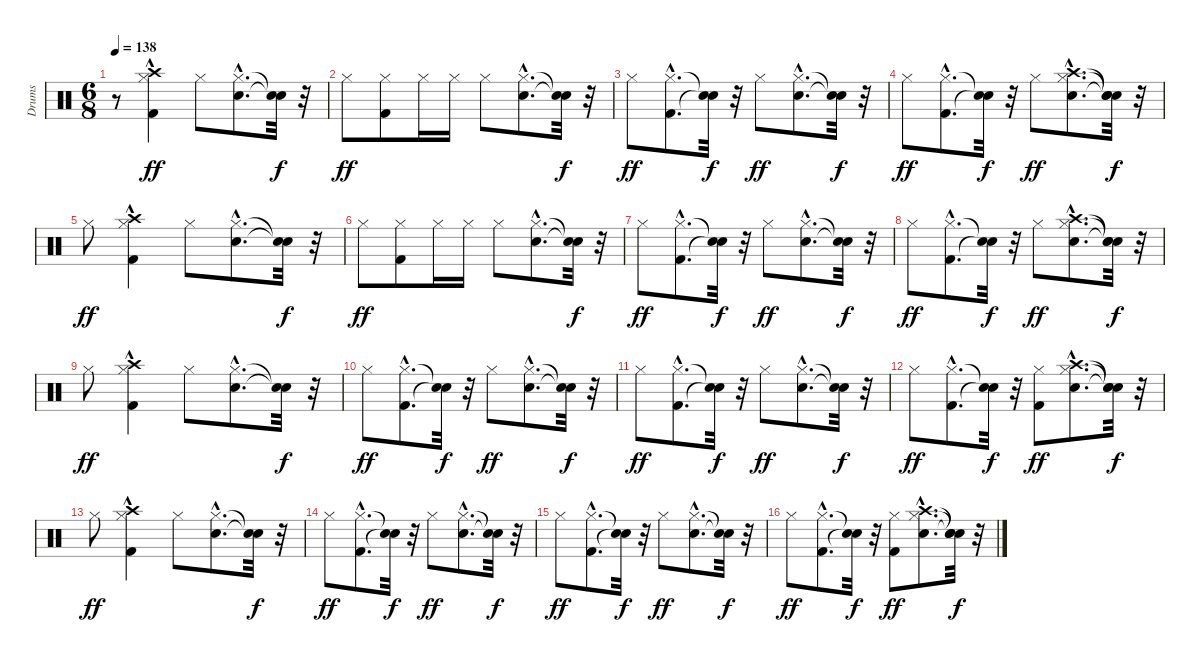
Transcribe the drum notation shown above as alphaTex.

\track ("Drums" "Drums") {instrument percussion}
\staff {score}
\articulation defaults
\ts (6 8)
\tempo 138
\clef neutral
\ks c
r.8{dy f} ("Kick (hit) 2"{hac} "Hi-Hat (closed)"{hac} "Crash high (hit)").4{dy ff} "Hi-Hat (closed)".8 ("Snare (hit) 2"{hac} "Hi-Hat (closed)"{hac}).8{d} ("Snare (hit)"{t} "Snare (hit)"{t}).32{dy f} r.32 |
"Hi-Hat (closed)".8{dy ff} ("Kick (hit) 2" "Hi-Hat (closed)").8 "Hi-Hat (closed)".16 "Hi-Hat (closed)".16 "Hi-Hat (closed)".8 ("Snare (hit) 2"{hac} "Hi-Hat (closed)"{hac}).8{d} ("Snare (hit)"{t} "Snare (hit)"{t}).32{dy f} r.32 |
"Hi-Hat (closed)".8{dy ff} ("Kick (hit) 2"{hac} "Hi-Hat (closed)"{hac}).8{d} ("Snare (hit)"{t} "Snare (hit)"{t}).32{dy f} r.32 "Hi-Hat (closed)".8{dy ff} ("Snare (hit) 2"{hac} "Hi-Hat (closed)"{hac}).8{d} ("Snare (hit)"{t} "Snare (hit)"{t}).32{dy f} r.32 |
"Hi-Hat (closed)".8{dy ff} ("Kick (hit) 2"{hac} "Hi-Hat (closed)"{hac}).8{d} ("Snare (hit)"{t} "Snare (hit)"{t}).32{dy f} r.32 "Hi-Hat (closed)".8{dy ff} ("Snare (hit) 2"{hac} "Hi-Hat (closed)"{hac} "Crash high (hit)"{hac}).8{d} ("Snare (hit)"{t} "Snare (hit)"{t} "Snare (hit)"{t}).32{dy f} r.32 |
"Hi-Hat (closed)".8{dy ff} ("Kick (hit) 2"{hac} "Hi-Hat (closed)"{hac} "Crash high (hit)").4 "Hi-Hat (closed)".8 ("Snare (hit) 2"{hac} "Hi-Hat (closed)"{hac}).8{d} ("Snare (hit)"{t} "Snare (hit)"{t}).32{dy f} r.32 |
"Hi-Hat (closed)".8{dy ff} ("Kick (hit) 2" "Hi-Hat (closed)").8 "Hi-Hat (closed)".16 "Hi-Hat (closed)".16 "Hi-Hat (closed)".8 ("Snare (hit) 2"{hac} "Hi-Hat (closed)"{hac}).8{d} ("Snare (hit)"{t} "Snare (hit)"{t}).32{dy f} r.32 |
"Hi-Hat (closed)".8{dy ff} ("Kick (hit) 2"{hac} "Hi-Hat (closed)"{hac}).8{d} ("Snare (hit)"{t} "Snare (hit)"{t}).32{dy f} r.32 "Hi-Hat (closed)".8{dy ff} ("Snare (hit) 2"{hac} "Hi-Hat (closed)"{hac}).8{d} ("Snare (hit)"{t} "Snare (hit)"{t}).32{dy f} r.32 |
"Hi-Hat (closed)".8{dy ff} ("Kick (hit) 2"{hac} "Hi-Hat (closed)"{hac}).8{d} ("Snare (hit)"{t} "Snare (hit)"{t}).32{dy f} r.32 "Hi-Hat (closed)".8{dy ff} ("Snare (hit) 2"{hac} "Hi-Hat (closed)"{hac} "Crash high (hit)"{hac}).8{d} ("Snare (hit)"{t} "Snare (hit)"{t} "Snare (hit)"{t}).32{dy f} r.32 |
"Hi-Hat (closed)".8{dy ff} ("Kick (hit) 2"{hac} "Hi-Hat (closed)"{hac} "Crash high (hit)").4 "Hi-Hat (closed)".8 ("Snare (hit) 2"{hac} "Hi-Hat (closed)"{hac}).8{d} ("Snare (hit)"{t} "Snare (hit)"{t}).32{dy f} r.32 |
"Hi-Hat (closed)".8{dy ff} ("Kick (hit) 2"{hac} "Hi-Hat (closed)"{hac}).8{d} ("Snare (hit)"{t} "Snare (hit)"{t}).32{dy f} r.32 "Hi-Hat (closed)".8{dy ff} ("Snare (hit) 2"{hac} "Hi-Hat (closed)"{hac}).8{d} ("Snare (hit)"{t} "Snare (hit)"{t}).32{dy f} r.32 |
"Hi-Hat (closed)".8{dy ff} ("Kick (hit) 2"{hac} "Hi-Hat (closed)"{hac}).8{d} ("Snare (hit)"{t} "Snare (hit)"{t}).32{dy f} r.32 "Hi-Hat (closed)".8{dy ff} ("Snare (hit) 2"{hac} "Hi-Hat (closed)"{hac}).8{d} ("Snare (hit)"{t} "Snare (hit)"{t}).32{dy f} r.32 |
"Hi-Hat (closed)".8{dy ff} ("Kick (hit) 2"{hac} "Hi-Hat (closed)"{hac}).8{d} ("Snare (hit)"{t} "Snare (hit)"{t}).32{dy f} r.32 ("Kick (hit) 2" "Hi-Hat (closed)").8{dy ff} ("Snare (hit) 2"{hac} "Hi-Hat (closed)"{hac} "Crash high (hit)"{hac}).8{d} ("Snare (hit)"{t} "Snare (hit)"{t} "Snare (hit)"{t}).32{dy f} r.32 |
"Hi-Hat (closed)".8{dy ff} ("Kick (hit) 2"{hac} "Hi-Hat (closed)"{hac} "Crash high (hit)").4 "Hi-Hat (closed)".8 ("Snare (hit) 2"{hac} "Hi-Hat (closed)"{hac}).8{d} ("Snare (hit)"{t} "Snare (hit)"{t}).32{dy f} r.32 |
"Hi-Hat (closed)".8{dy ff} ("Kick (hit) 2"{hac} "Hi-Hat (closed)"{hac}).8{d} ("Snare (hit)"{t} "Snare (hit)"{t}).32{dy f} r.32 "Hi-Hat (closed)".8{dy ff} ("Snare (hit) 2"{hac} "Hi-Hat (closed)"{hac}).8{d} ("Snare (hit)"{t} "Snare (hit)"{t}).32{dy f} r.32 |
"Hi-Hat (closed)".8{dy ff} ("Kick (hit) 2"{hac} "Hi-Hat (closed)"{hac}).8{d} ("Snare (hit)"{t} "Snare (hit)"{t}).32{dy f} r.32 "Hi-Hat (closed)".8{dy ff} ("Snare (hit) 2"{hac} "Hi-Hat (closed)"{hac}).8{d} ("Snare (hit)"{t} "Snare (hit)"{t}).32{dy f} r.32 |
"Hi-Hat (closed)".8{dy ff} ("Kick (hit) 2"{hac} "Hi-Hat (closed)"{hac}).8{d} ("Snare (hit)"{t} "Snare (hit)"{t}).32{dy f} r.32 ("Kick (hit) 2" "Hi-Hat (closed)").8{dy ff} ("Snare (hit) 2"{hac} "Hi-Hat (closed)"{hac} "Crash high (hit)"{hac}).8{d} ("Snare (hit)"{t} "Snare (hit)"{t} "Snare (hit)"{t}).32{dy f} r.32
